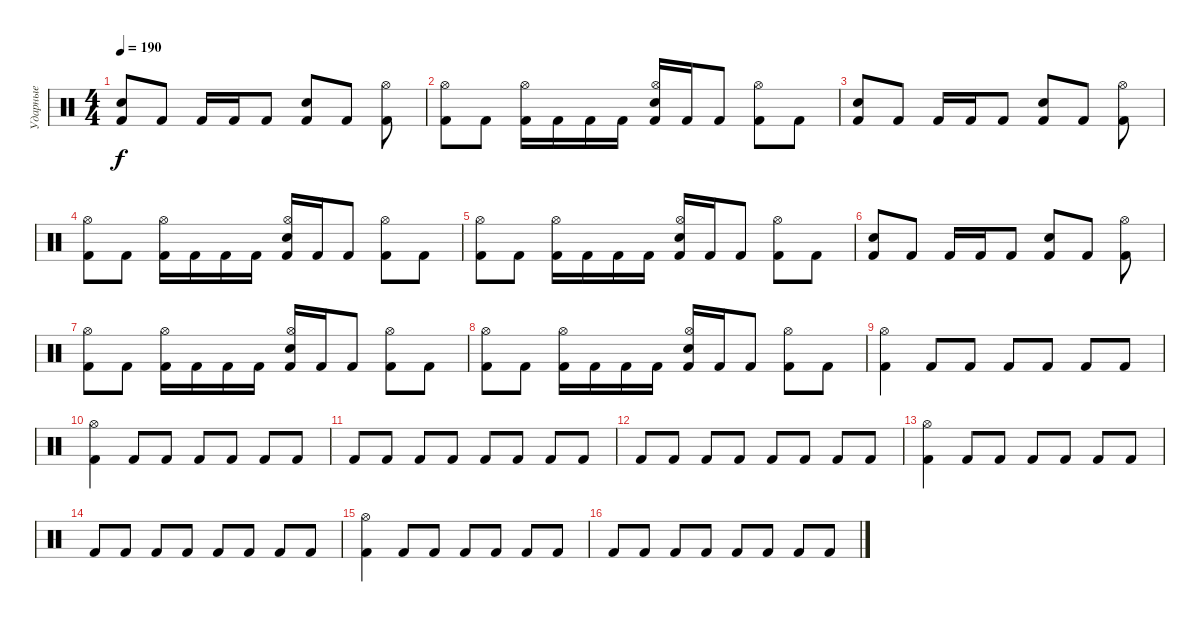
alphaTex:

\track ("Ударные" "Ударные") {instrument percussion}
\staff {score}
\articulation defaults
\ts (4 4)
\tempo 190
\clef neutral
\ks c
("Kick (hit) 2" "Snare (hit) 2").8{dy f} "Kick (hit) 2".8 "Kick (hit) 2".16 "Kick (hit) 2".16 "Kick (hit) 2".8 ("Kick (hit) 2" "Snare (hit) 2").8 "Kick (hit) 2".8 ("Kick (hit) 2" "Hi-Hat (open)").8 |
("Kick (hit) 2" "Hi-Hat (open)").8 "Kick (hit) 2".8 ("Hi-Hat (open)" "Kick (hit) 2").16 "Kick (hit) 2".16 "Kick (hit) 2".16 "Kick (hit) 2".16 ("Hi-Hat (open)" "Electric Snare (hit)" "Kick (hit) 2").16 "Kick (hit) 2".16 "Kick (hit) 2".8 ("Hi-Hat (open)" "Kick (hit) 2").8 "Kick (hit) 2".8 |
("Kick (hit) 2" "Snare (hit) 2").8 "Kick (hit) 2".8 "Kick (hit) 2".16 "Kick (hit) 2".16 "Kick (hit) 2".8 ("Kick (hit) 2" "Snare (hit) 2").8 "Kick (hit) 2".8 ("Kick (hit) 2" "Hi-Hat (open)").8 |
("Kick (hit) 2" "Hi-Hat (open)").8 "Kick (hit) 2".8 ("Hi-Hat (open)" "Kick (hit) 2").16 "Kick (hit) 2".16 "Kick (hit) 2".16 "Kick (hit) 2".16 ("Hi-Hat (open)" "Electric Snare (hit)" "Kick (hit) 2").16 "Kick (hit) 2".16 "Kick (hit) 2".8 ("Hi-Hat (open)" "Kick (hit) 2").8 "Kick (hit) 2".8 |
("Kick (hit) 2" "Hi-Hat (open)").8 "Kick (hit) 2".8 ("Hi-Hat (open)" "Kick (hit) 2").16 "Kick (hit) 2".16 "Kick (hit) 2".16 "Kick (hit) 2".16 ("Hi-Hat (open)" "Electric Snare (hit)" "Kick (hit) 2").16 "Kick (hit) 2".16 "Kick (hit) 2".8 ("Hi-Hat (open)" "Kick (hit) 2").8 "Kick (hit) 2".8 |
("Kick (hit) 2" "Snare (hit) 2").8 "Kick (hit) 2".8 "Kick (hit) 2".16 "Kick (hit) 2".16 "Kick (hit) 2".8 ("Kick (hit) 2" "Snare (hit) 2").8 "Kick (hit) 2".8 ("Kick (hit) 2" "Hi-Hat (open)").8 |
("Kick (hit) 2" "Hi-Hat (open)").8 "Kick (hit) 2".8 ("Hi-Hat (open)" "Kick (hit) 2").16 "Kick (hit) 2".16 "Kick (hit) 2".16 "Kick (hit) 2".16 ("Hi-Hat (open)" "Electric Snare (hit)" "Kick (hit) 2").16 "Kick (hit) 2".16 "Kick (hit) 2".8 ("Hi-Hat (open)" "Kick (hit) 2").8 "Kick (hit) 2".8 |
("Kick (hit) 2" "Hi-Hat (open)").8 "Kick (hit) 2".8 ("Hi-Hat (open)" "Kick (hit) 2").16 "Kick (hit) 2".16 "Kick (hit) 2".16 "Kick (hit) 2".16 ("Hi-Hat (open)" "Electric Snare (hit)" "Kick (hit) 2").16 "Kick (hit) 2".16 "Kick (hit) 2".8 ("Hi-Hat (open)" "Kick (hit) 2").8 "Kick (hit) 2".8 |
("Kick (hit) 2" "Hi-Hat (open)").4 "Kick (hit) 2".8 "Kick (hit) 2".8 "Kick (hit) 2".8 "Kick (hit) 2".8 "Kick (hit) 2".8 "Kick (hit) 2".8 |
("Kick (hit) 2" "Hi-Hat (open)").4 "Kick (hit) 2".8 "Kick (hit) 2".8 "Kick (hit) 2".8 "Kick (hit) 2".8 "Kick (hit) 2".8 "Kick (hit) 2".8 |
"Kick (hit) 2".8 "Kick (hit) 2".8 "Kick (hit) 2".8 "Kick (hit) 2".8 "Kick (hit) 2".8 "Kick (hit) 2".8 "Kick (hit) 2".8 "Kick (hit) 2".8 |
"Kick (hit) 2".8 "Kick (hit) 2".8 "Kick (hit) 2".8 "Kick (hit) 2".8 "Kick (hit) 2".8 "Kick (hit) 2".8 "Kick (hit) 2".8 "Kick (hit) 2".8 |
("Kick (hit) 2" "Hi-Hat (open)").4 "Kick (hit) 2".8 "Kick (hit) 2".8 "Kick (hit) 2".8 "Kick (hit) 2".8 "Kick (hit) 2".8 "Kick (hit) 2".8 |
"Kick (hit) 2".8 "Kick (hit) 2".8 "Kick (hit) 2".8 "Kick (hit) 2".8 "Kick (hit) 2".8 "Kick (hit) 2".8 "Kick (hit) 2".8 "Kick (hit) 2".8 |
("Kick (hit) 2" "Hi-Hat (open)").4 "Kick (hit) 2".8 "Kick (hit) 2".8 "Kick (hit) 2".8 "Kick (hit) 2".8 "Kick (hit) 2".8 "Kick (hit) 2".8 |
"Kick (hit) 2".8 "Kick (hit) 2".8 "Kick (hit) 2".8 "Kick (hit) 2".8 "Kick (hit) 2".8 "Kick (hit) 2".8 "Kick (hit) 2".8 "Kick (hit) 2".8
